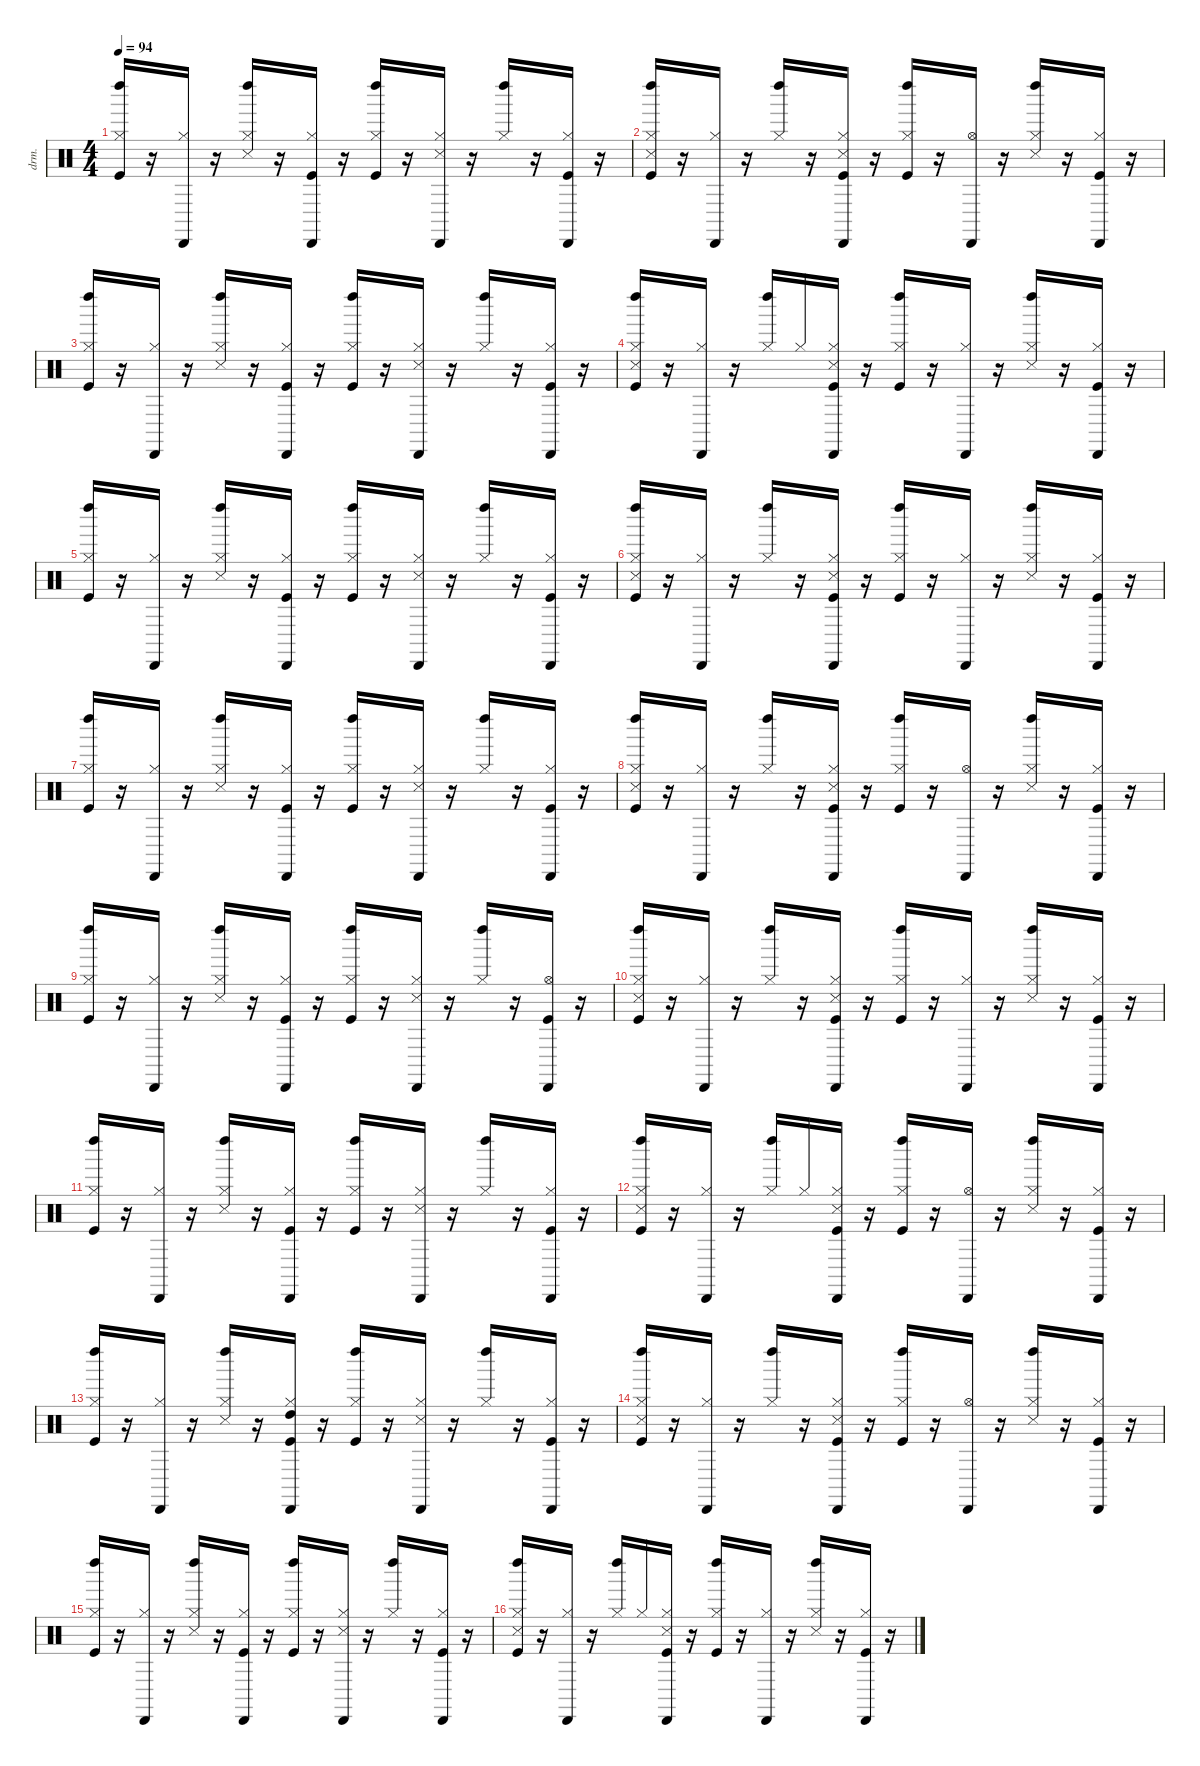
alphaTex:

\defaultSystemsLayout 4
\hideDynamics
\bracketExtendMode nobrackets
\otherSystemsTrackNameOrientation horizontal
\track ("Drums" "drm.") {instrument percussion}
\staff {score}
\articulation defaults
\ts (4 4)
\tempo 94
\clef neutral
\ks c
("Left Maraca (hit)" "Hi-Hat (closed)" "Kick (hit)").16{dy mf beam Up} r.16{beam Up} ("Cabasa (hit)" "Hi-Hat (closed)").16{dy p beam Up} r.16{beam Up} ("Left Maraca (hit)" "Hi-Hat (closed)" "Snare (side stick) 3").16{dy mf beam Up} r.16{beam Up} ("Cabasa (hit)" "Hi-Hat (closed)" "Kick (hit)").16{dy p beam Up} r.16{beam Up} ("Left Maraca (hit)" "Hi-Hat (closed)" "Kick (hit)").16{dy mf beam Up} r.16{beam Up} ("Cabasa (hit)" "Hi-Hat (closed)" "Snare (side stick) 3").16{dy p beam Up} r.16{beam Up} ("Left Maraca (hit)" "Hi-Hat (closed)").16{dy mf beam Up} r.16{beam Up} ("Cabasa (hit)" "Hi-Hat (closed)" "Kick (hit)").16{dy p beam Up} r.16{beam Up} |
("Left Maraca (hit)" "Hi-Hat (closed)" "Snare (side stick) 3" "Kick (hit)").16{dy mf beam Up} r.16{beam Up} ("Cabasa (hit)" "Hi-Hat (closed)").16{dy p beam Up} r.16{beam Up} ("Left Maraca (hit)" "Hi-Hat (closed)").16{dy mf beam Up} r.16{beam Up} ("Cabasa (hit)" "Hi-Hat (closed)" "Snare (side stick) 3" "Kick (hit)").16{dy p beam Up} r.16{beam Up} ("Left Maraca (hit)" "Hi-Hat (closed)" "Kick (hit)").16{dy mf beam Up} r.16{beam Up} ("Cabasa (hit)" "Hi-Hat (open)").16{dy p beam Up} r.16{beam Up} ("Left Maraca (hit)" "Hi-Hat (closed)" "Snare (side stick) 3").16{dy mf beam Up} r.16{beam Up} ("Cabasa (hit)" "Hi-Hat (closed)" "Kick (hit)").16{dy p beam Up} r.16{beam Up} |
("Left Maraca (hit)" "Hi-Hat (closed)" "Kick (hit)").16{dy mf beam Up} r.16{beam Up} ("Cabasa (hit)" "Hi-Hat (closed)").16{dy p beam Up} r.16{beam Up} ("Left Maraca (hit)" "Hi-Hat (closed)" "Snare (side stick) 3").16{dy mf beam Up} r.16{beam Up} ("Cabasa (hit)" "Hi-Hat (closed)" "Kick (hit)").16{dy p beam Up} r.16{beam Up} ("Left Maraca (hit)" "Hi-Hat (closed)" "Kick (hit)").16{dy mf beam Up} r.16{beam Up} ("Cabasa (hit)" "Hi-Hat (closed)" "Snare (side stick) 3").16{dy p beam Up} r.16{beam Up} ("Left Maraca (hit)" "Hi-Hat (closed)").16{dy mf beam Up} r.16{beam Up} ("Cabasa (hit)" "Hi-Hat (closed)" "Kick (hit)").16{dy p beam Up} r.16{beam Up} |
("Left Maraca (hit)" "Hi-Hat (closed)" "Snare (side stick) 3" "Kick (hit)").16{dy mf beam Up} r.16{beam Up} ("Cabasa (hit)" "Hi-Hat (closed)").16{dy p beam Up} r.16{beam Up} ("Left Maraca (hit)" "Hi-Hat (closed)").16{dy mf beam Up} "Hi-Hat (closed)".16{beam Up} ("Cabasa (hit)" "Hi-Hat (closed)" "Snare (side stick) 3" "Kick (hit)").16{dy p beam Up} r.16{beam Up} ("Left Maraca (hit)" "Hi-Hat (closed)" "Kick (hit)").16{dy mf beam Up} r.16{beam Up} ("Cabasa (hit)" "Hi-Hat (closed)").16{dy p beam Up} r.16{beam Up} ("Left Maraca (hit)" "Hi-Hat (closed)" "Snare (side stick) 3").16{dy mf beam Up} r.16{beam Up} ("Cabasa (hit)" "Hi-Hat (closed)" "Kick (hit)").16{dy p beam Up} r.16{beam Up} |
("Left Maraca (hit)" "Hi-Hat (closed)" "Kick (hit)").16{dy mf beam Up} r.16{beam Up} ("Cabasa (hit)" "Hi-Hat (closed)").16{dy p beam Up} r.16{beam Up} ("Left Maraca (hit)" "Hi-Hat (closed)" "Snare (side stick) 3").16{dy mf beam Up} r.16{beam Up} ("Cabasa (hit)" "Hi-Hat (closed)" "Kick (hit)").16{dy p beam Up} r.16{beam Up} ("Left Maraca (hit)" "Hi-Hat (closed)" "Kick (hit)").16{dy mf beam Up} r.16{beam Up} ("Cabasa (hit)" "Hi-Hat (closed)" "Snare (side stick) 3").16{dy p beam Up} r.16{beam Up} ("Left Maraca (hit)" "Hi-Hat (closed)").16{dy mf beam Up} r.16{beam Up} ("Cabasa (hit)" "Hi-Hat (closed)" "Kick (hit)").16{dy p beam Up} r.16{beam Up} |
("Left Maraca (hit)" "Hi-Hat (closed)" "Snare (side stick) 3" "Kick (hit)").16{dy mf beam Up} r.16{beam Up} ("Cabasa (hit)" "Hi-Hat (closed)").16{dy p beam Up} r.16{beam Up} ("Left Maraca (hit)" "Hi-Hat (closed)").16{dy mf beam Up} r.16{beam Up} ("Cabasa (hit)" "Hi-Hat (closed)" "Snare (side stick) 3" "Kick (hit)").16{dy p beam Up} r.16{beam Up} ("Left Maraca (hit)" "Hi-Hat (closed)" "Kick (hit)").16{dy mf beam Up} r.16{beam Up} ("Cabasa (hit)" "Hi-Hat (closed)").16{dy p beam Up} r.16{beam Up} ("Left Maraca (hit)" "Hi-Hat (closed)" "Snare (side stick) 3").16{dy mf beam Up} r.16{beam Up} ("Cabasa (hit)" "Hi-Hat (closed)" "Kick (hit)").16{dy p beam Up} r.16{beam Up} |
("Left Maraca (hit)" "Hi-Hat (closed)" "Kick (hit)").16{dy mf beam Up} r.16{beam Up} ("Cabasa (hit)" "Hi-Hat (closed)").16{dy p beam Up} r.16{beam Up} ("Left Maraca (hit)" "Hi-Hat (closed)" "Snare (side stick) 3").16{dy mf beam Up} r.16{beam Up} ("Cabasa (hit)" "Hi-Hat (closed)" "Kick (hit)").16{dy p beam Up} r.16{beam Up} ("Left Maraca (hit)" "Hi-Hat (closed)" "Kick (hit)").16{dy mf beam Up} r.16{beam Up} ("Cabasa (hit)" "Hi-Hat (closed)" "Snare (side stick) 3").16{dy p beam Up} r.16{beam Up} ("Left Maraca (hit)" "Hi-Hat (closed)").16{dy mf beam Up} r.16{beam Up} ("Cabasa (hit)" "Hi-Hat (closed)" "Kick (hit)").16{dy p beam Up} r.16{beam Up} |
("Left Maraca (hit)" "Hi-Hat (closed)" "Snare (side stick) 3" "Kick (hit)").16{dy mf beam Up} r.16{beam Up} ("Cabasa (hit)" "Hi-Hat (closed)").16{dy p beam Up} r.16{beam Up} ("Left Maraca (hit)" "Hi-Hat (closed)").16{dy mf beam Up} r.16{beam Up} ("Cabasa (hit)" "Hi-Hat (closed)" "Snare (side stick) 3" "Kick (hit)").16{dy p beam Up} r.16{beam Up} ("Left Maraca (hit)" "Hi-Hat (closed)" "Kick (hit)").16{dy mf beam Up} r.16{beam Up} ("Cabasa (hit)" "Hi-Hat (open)").16{dy p beam Up} r.16{beam Up} ("Left Maraca (hit)" "Hi-Hat (closed)" "Snare (side stick) 3").16{dy mf beam Up} r.16{beam Up} ("Cabasa (hit)" "Hi-Hat (closed)" "Kick (hit)").16{dy p beam Up} r.16{beam Up} |
("Left Maraca (hit)" "Hi-Hat (closed)" "Kick (hit)").16{dy mf beam Up} r.16{beam Up} ("Cabasa (hit)" "Hi-Hat (closed)").16{dy p beam Up} r.16{beam Up} ("Left Maraca (hit)" "Hi-Hat (closed)" "Snare (side stick) 3").16{dy mf beam Up} r.16{beam Up} ("Cabasa (hit)" "Hi-Hat (closed)" "Kick (hit)").16{dy p beam Up} r.16{beam Up} ("Left Maraca (hit)" "Hi-Hat (closed)" "Kick (hit)").16{dy mf beam Up} r.16{beam Up} ("Cabasa (hit)" "Hi-Hat (closed)" "Snare (side stick) 3").16{dy p beam Up} r.16{beam Up} ("Left Maraca (hit)" "Hi-Hat (closed)").16{dy mf beam Up} r.16{beam Up} ("Cabasa (hit)" "Hi-Hat (open)" "Kick (hit)").16{dy p beam Up} r.16{beam Up} |
("Left Maraca (hit)" "Hi-Hat (closed)" "Snare (side stick) 3" "Kick (hit)").16{dy mf beam Up} r.16{beam Up} ("Cabasa (hit)" "Hi-Hat (closed)").16{dy p beam Up} r.16{beam Up} ("Left Maraca (hit)" "Hi-Hat (closed)").16{dy mf beam Up} r.16{beam Up} ("Cabasa (hit)" "Hi-Hat (closed)" "Snare (side stick) 3" "Kick (hit)").16{dy p beam Up} r.16{beam Up} ("Left Maraca (hit)" "Hi-Hat (closed)" "Kick (hit)").16{dy mf beam Up} r.16{beam Up} ("Cabasa (hit)" "Hi-Hat (closed)").16{dy p beam Up} r.16{beam Up} ("Left Maraca (hit)" "Hi-Hat (closed)" "Snare (side stick) 3").16{dy mf beam Up} r.16{beam Up} ("Cabasa (hit)" "Hi-Hat (closed)" "Kick (hit)").16{dy p beam Up} r.16{beam Up} |
("Left Maraca (hit)" "Hi-Hat (closed)" "Kick (hit)").16{dy mf beam Up} r.16{beam Up} ("Cabasa (hit)" "Hi-Hat (closed)").16{dy p beam Up} r.16{beam Up} ("Left Maraca (hit)" "Hi-Hat (closed)" "Snare (side stick) 3").16{dy mf beam Up} r.16{beam Up} ("Cabasa (hit)" "Hi-Hat (closed)" "Kick (hit)").16{dy p beam Up} r.16{beam Up} ("Left Maraca (hit)" "Hi-Hat (closed)" "Kick (hit)").16{dy mf beam Up} r.16{beam Up} ("Cabasa (hit)" "Hi-Hat (closed)" "Snare (side stick) 3").16{dy p beam Up} r.16{beam Up} ("Left Maraca (hit)" "Hi-Hat (closed)").16{dy mf beam Up} r.16{beam Up} ("Cabasa (hit)" "Hi-Hat (closed)" "Kick (hit)").16{dy p beam Up} r.16{beam Up} |
("Left Maraca (hit)" "Hi-Hat (closed)" "Snare (side stick) 3" "Kick (hit)").16{dy mf beam Up} r.16{beam Up} ("Cabasa (hit)" "Hi-Hat (closed)").16{dy p beam Up} r.16{beam Up} ("Left Maraca (hit)" "Hi-Hat (closed)").16{dy mf beam Up} "Hi-Hat (closed)".16{beam Up} ("Cabasa (hit)" "Hi-Hat (closed)" "Snare (side stick) 3" "Kick (hit)").16{dy p beam Up} r.16{beam Up} ("Left Maraca (hit)" "Hi-Hat (closed)" "Kick (hit)").16{dy mf beam Up} r.16{beam Up} ("Cabasa (hit)" "Hi-Hat (open)").16{dy p beam Up} r.16{beam Up} ("Left Maraca (hit)" "Hi-Hat (closed)" "Snare (side stick) 3").16{dy mf beam Up} r.16{beam Up} ("Cabasa (hit)" "Hi-Hat (closed)" "Kick (hit)").16{dy p beam Up} r.16{beam Up} |
("Left Maraca (hit)" "Hi-Hat (closed)" "Kick (hit)").16{dy mf beam Up} r.16{beam Up} ("Cabasa (hit)" "Hi-Hat (closed)").16{dy p beam Up} r.16{beam Up} ("Left Maraca (hit)" "Hi-Hat (closed)" "Snare (side stick) 3").16{dy mf beam Up} r.16{beam Up} ("Cabasa (hit)" "High Tom (hit)" "Hi-Hat (closed)" "Kick (hit)").16{dy p beam Up} r.16{beam Up} ("Left Maraca (hit)" "Hi-Hat (closed)" "Kick (hit)").16{dy mf beam Up} r.16{beam Up} ("Cabasa (hit)" "Hi-Hat (closed)" "Snare (side stick) 3").16{dy p beam Up} r.16{beam Up} ("Left Maraca (hit)" "Hi-Hat (closed)").16{dy mf beam Up} r.16{beam Up} ("Cabasa (hit)" "Hi-Hat (closed)" "Kick (hit)").16{dy p beam Up} r.16{beam Up} |
("Left Maraca (hit)" "Hi-Hat (closed)" "Snare (side stick) 3" "Kick (hit)").16{dy mf beam Up} r.16{beam Up} ("Cabasa (hit)" "Hi-Hat (closed)").16{dy p beam Up} r.16{beam Up} ("Left Maraca (hit)" "Hi-Hat (closed)").16{dy mf beam Up} r.16{beam Up} ("Cabasa (hit)" "Hi-Hat (closed)" "Snare (side stick) 3" "Kick (hit)").16{dy p beam Up} r.16{beam Up} ("Left Maraca (hit)" "Hi-Hat (closed)" "Kick (hit)").16{dy mf beam Up} r.16{beam Up} ("Cabasa (hit)" "Hi-Hat (open)").16{dy p beam Up} r.16{beam Up} ("Left Maraca (hit)" "Hi-Hat (closed)" "Snare (side stick) 3").16{dy mf beam Up} r.16{beam Up} ("Cabasa (hit)" "Hi-Hat (closed)" "Kick (hit)").16{dy p beam Up} r.16{beam Up} |
("Left Maraca (hit)" "Hi-Hat (closed)" "Kick (hit)").16{dy mf beam Up} r.16{beam Up} ("Cabasa (hit)" "Hi-Hat (closed)").16{dy p beam Up} r.16{beam Up} ("Left Maraca (hit)" "Hi-Hat (closed)" "Snare (side stick) 3").16{dy mf beam Up} r.16{beam Up} ("Cabasa (hit)" "Hi-Hat (closed)" "Kick (hit)").16{dy p beam Up} r.16{beam Up} ("Left Maraca (hit)" "Hi-Hat (closed)" "Kick (hit)").16{dy mf beam Up} r.16{beam Up} ("Cabasa (hit)" "Hi-Hat (closed)" "Snare (side stick) 3").16{dy p beam Up} r.16{beam Up} ("Left Maraca (hit)" "Hi-Hat (closed)").16{dy mf beam Up} r.16{beam Up} ("Cabasa (hit)" "Hi-Hat (closed)" "Kick (hit)").16{dy p beam Up} r.16{beam Up} |
("Left Maraca (hit)" "Hi-Hat (closed)" "Snare (side stick) 3" "Kick (hit)").16{dy mf beam Up} r.16{beam Up} ("Cabasa (hit)" "Hi-Hat (closed)").16{dy p beam Up} r.16{beam Up} ("Left Maraca (hit)" "Hi-Hat (closed)").16{dy mf beam Up} "Hi-Hat (closed)".16{beam Up} ("Cabasa (hit)" "Hi-Hat (closed)" "Snare (side stick) 3" "Kick (hit)").16{dy p beam Up} r.16{beam Up} ("Left Maraca (hit)" "Hi-Hat (closed)" "Kick (hit)").16{dy mf beam Up} r.16{beam Up} ("Cabasa (hit)" "Hi-Hat (closed)").16{dy p beam Up} r.16{beam Up} ("Left Maraca (hit)" "Hi-Hat (closed)" "Snare (side stick) 3").16{dy mf beam Up} r.16{beam Up} ("Cabasa (hit)" "Hi-Hat (closed)" "Kick (hit)").16{dy p beam Up} r.16{beam Up}
